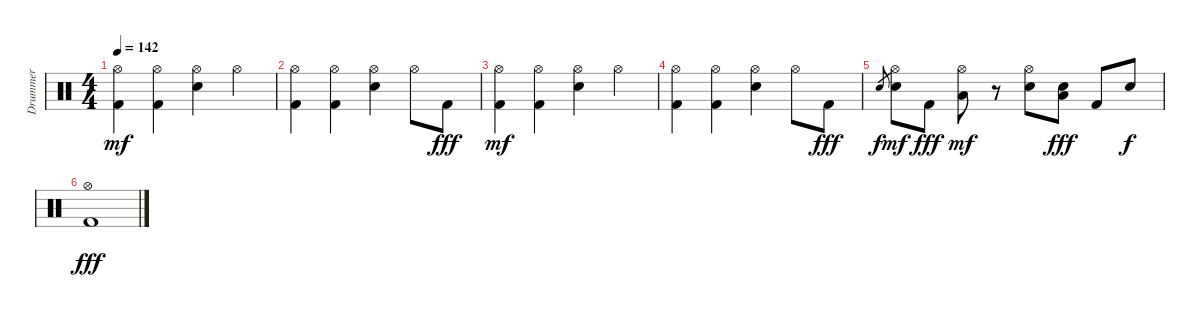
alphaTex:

\track ("Drummer" "Drummer") {instrument percussion}
\staff {score}
\articulation defaults
\ts (4 4)
\tempo 142
\clef neutral
\ks c
("Kick (hit) 2" "Hi-Hat (open)").4{dy mf} ("Kick (hit) 2" "Hi-Hat (open)").4 ("Electric Snare (hit)" "Hi-Hat (open)").4 "Hi-Hat (open)".4 |
("Kick (hit) 2" "Hi-Hat (open)").4 ("Kick (hit) 2" "Hi-Hat (open)").4 ("Electric Snare (hit)" "Hi-Hat (open)").4 "Hi-Hat (open)".8 "Kick (hit) 2".8{dy fff} |
("Kick (hit) 2" "Hi-Hat (open)").4{dy mf} ("Kick (hit) 2" "Hi-Hat (open)").4 ("Electric Snare (hit)" "Hi-Hat (open)").4 "Hi-Hat (open)".4 |
("Kick (hit) 2" "Hi-Hat (open)").4 ("Kick (hit) 2" "Hi-Hat (open)").4 ("Electric Snare (hit)" "Hi-Hat (open)").4 "Hi-Hat (open)".8 "Kick (hit) 2".8{dy fff} |
"Electric Snare (hit)".8{gr dy f} ("Electric Snare (hit)" "Hi-Hat (open)").8{dy mf} "Kick (hit) 2".8{dy fff} ("Low Tom (hit)" "Hi-Hat (open)").8{dy mf} r.8 ("Electric Snare (hit)" "Hi-Hat (open)").8 ("Electric Snare (hit)" "Low Tom (hit)").8{dy fff} "Kick (hit) 2".8 "Electric Snare (hit)".8{dy f} |
("Kick (hit) 2" "Hi-Hat (open)").1{dy fff}
